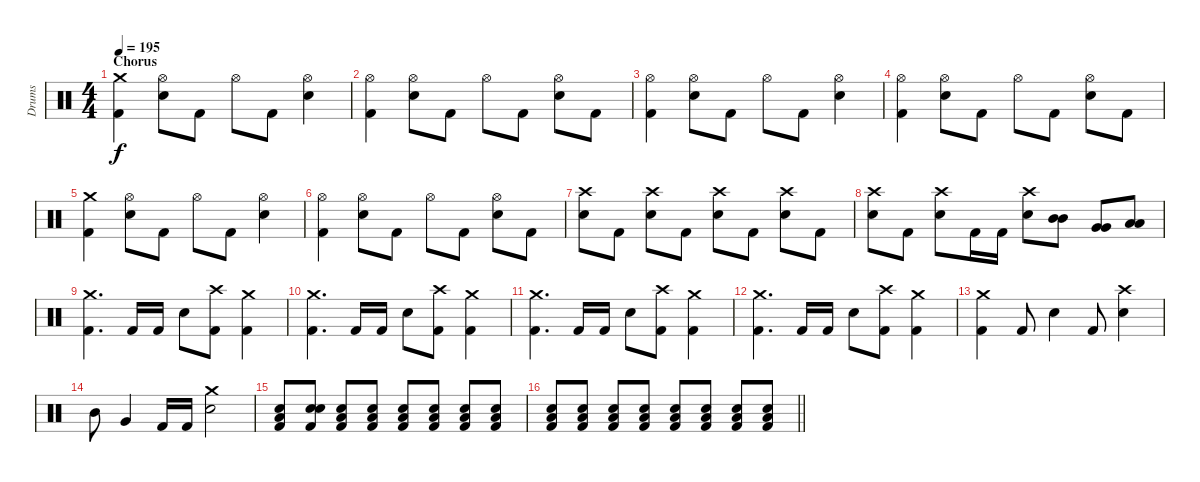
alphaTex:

\track ("Drums" "Drums") {instrument percussion}
\staff {score}
\articulation defaults
\ts (4 4)
\section ("" "Chorus")
\tempo 195
\clef neutral
\ks c
("Crash medium (hit)" "Kick (hit) 2").4{dy f} ("Hi-Hat (open)" "Snare (hit) 2").8 "Kick (hit) 2".8 "Hi-Hat (open)".8 "Kick (hit) 2".8 ("Hi-Hat (open)" "Snare (hit) 2").4 |
("Hi-Hat (open)" "Kick (hit) 2").4 ("Hi-Hat (open)" "Snare (hit) 2").8 "Kick (hit) 2".8 "Hi-Hat (open)".8 "Kick (hit) 2".8 ("Hi-Hat (open)" "Snare (hit) 2").8 "Kick (hit) 2".8 |
("Hi-Hat (open)" "Kick (hit) 2").4 ("Hi-Hat (open)" "Snare (hit) 2").8 "Kick (hit) 2".8 "Hi-Hat (open)".8 "Kick (hit) 2".8 ("Hi-Hat (open)" "Snare (hit) 2").4 |
("Hi-Hat (open)" "Kick (hit) 2").4 ("Hi-Hat (open)" "Snare (hit) 2").8 "Kick (hit) 2".8 "Hi-Hat (open)".8 "Kick (hit) 2".8 ("Hi-Hat (open)" "Snare (hit) 2").8 "Kick (hit) 2".8 |
("Crash medium (hit)" "Kick (hit) 2").4 ("Hi-Hat (open)" "Snare (hit) 2").8 "Kick (hit) 2".8 "Hi-Hat (open)".8 "Kick (hit) 2".8 ("Hi-Hat (open)" "Snare (hit) 2").4 |
("Hi-Hat (open)" "Kick (hit) 2").4 ("Hi-Hat (open)" "Snare (hit) 2").8 "Kick (hit) 2".8 "Hi-Hat (open)".8 "Kick (hit) 2".8 ("Hi-Hat (open)" "Snare (hit) 2").8 "Kick (hit) 2".8 |
("Crash high (hit)" "Snare (hit) 2").8 "Kick (hit) 2".8 ("Crash high (hit)" "Snare (hit) 2").8 "Kick (hit) 2".8 ("Crash high (hit)" "Snare (hit) 2").8 "Kick (hit) 2".8 ("Crash high (hit)" "Snare (hit) 2").8 "Kick (hit) 2".8 |
("Crash high (hit)" "Snare (hit) 2").8 "Kick (hit) 2".8 ("Crash high (hit)" "Snare (hit) 2").8 "Kick (hit) 2".16 "Kick (hit) 2".16 ("Crash high (hit)" "Snare (hit) 2").8 ("Mid Tom (hit)" "Mid Tom (hit)").8 ("Very Low Tom (hit)" "Very Low Tom (hit)").8 ("Low Floor Tom (hit)" "Low Floor Tom (hit)").8 |
("Crash medium (hit)" "Kick (hit) 2").4{d} "Kick (hit) 2".16 "Kick (hit) 2".16 "Snare (hit) 2".8 ("Crash high (hit)" "Kick (hit) 2").8 ("Crash medium (hit)" "Kick (hit) 2").4 |
("Crash medium (hit)" "Kick (hit) 2").4{d} "Kick (hit) 2".16 "Kick (hit) 2".16 "Snare (hit) 2".8 ("Crash high (hit)" "Kick (hit) 2").8 ("Crash medium (hit)" "Kick (hit) 2").4 |
("Crash medium (hit)" "Kick (hit) 2").4{d} "Kick (hit) 2".16 "Kick (hit) 2".16 "Snare (hit) 2".8 ("Crash high (hit)" "Kick (hit) 2").8 ("Crash medium (hit)" "Kick (hit) 2").4 |
("Crash medium (hit)" "Kick (hit) 2").4{d} "Kick (hit) 2".16 "Kick (hit) 2".16 "Snare (hit) 2".8 ("Crash high (hit)" "Kick (hit) 2").8 ("Crash medium (hit)" "Kick (hit) 2").4 |
("Crash medium (hit)" "Kick (hit) 2").4 "Kick (hit) 2".8 "Snare (hit) 2".4 "Kick (hit) 2".8 ("Crash high (hit)" "Snare (hit) 2").4 |
"Mid Tom (hit)".8 "Very Low Tom (hit)".4 "Kick (hit) 2".16 "Kick (hit) 2".16 ("Crash medium (hit)" "Snare (hit) 2").2 |
("Snare (hit) 2" "Low Floor Tom (hit)" "Kick (hit) 2").8{volume 6} ("Snare (hit) 2" "Snare (hit)" "Kick (hit) 2").8{volume 14} ("Snare (hit) 2" "Low Floor Tom (hit)" "Kick (hit) 2").8 ("Snare (hit) 2" "Low Floor Tom (hit)" "Kick (hit) 2").8 ("Snare (hit) 2" "Low Floor Tom (hit)" "Kick (hit) 2").8 ("Snare (hit) 2" "Low Floor Tom (hit)" "Kick (hit) 2").8 ("Snare (hit) 2" "Low Floor Tom (hit)" "Kick (hit) 2").8 ("Snare (hit) 2" "Low Floor Tom (hit)" "Kick (hit) 2").8 |
\barLineRight lightlight
("Snare (hit) 2" "Low Floor Tom (hit)" "Kick (hit) 2").8 ("Snare (hit) 2" "Low Floor Tom (hit)" "Kick (hit) 2").8 ("Snare (hit) 2" "Low Floor Tom (hit)" "Kick (hit) 2").8 ("Snare (hit) 2" "Low Floor Tom (hit)" "Kick (hit) 2").8 ("Snare (hit) 2" "Low Floor Tom (hit)" "Kick (hit) 2").8 ("Snare (hit) 2" "Low Floor Tom (hit)" "Kick (hit) 2").8 ("Snare (hit) 2" "Low Floor Tom (hit)" "Kick (hit) 2").8 ("Snare (hit) 2" "Low Floor Tom (hit)" "Kick (hit) 2").8
